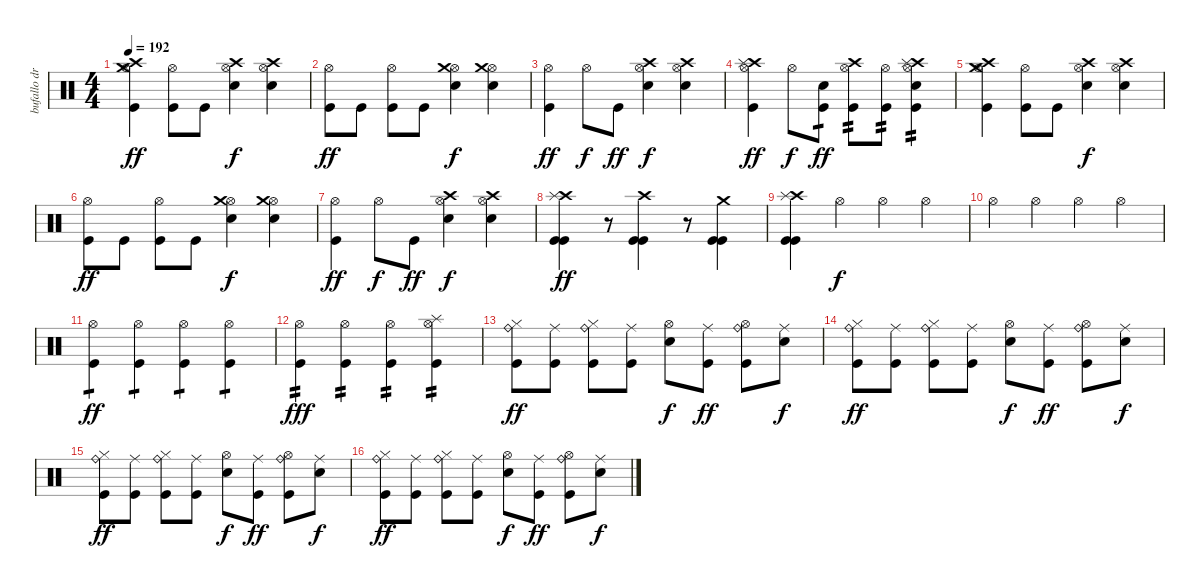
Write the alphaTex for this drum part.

\track ("bufallo drums" "bufallo dr") {instrument percussion}
\staff {score}
\articulation defaults
\ts (4 4)
\tempo 192
\clef neutral
\ks c
("Hi-Hat (open)" "Crash medium (hit)" "Crash high (hit)" "Kick (hit)").4{dy ff} ("Hi-Hat (open)" "Kick (hit)").8 "Kick (hit)".8 ("Hi-Hat (open)" "Electric Snare (hit)" "Crash high (hit)").4{dy f} ("Hi-Hat (open)" "Electric Snare (hit)" "Crash high (hit)").4 |
("Hi-Hat (open)" "Kick (hit)").8{dy ff} "Kick (hit)".8 ("Hi-Hat (open)" "Kick (hit)").8 "Kick (hit)".8 ("Hi-Hat (open)" "Electric Snare (hit)" "Crash medium (hit)").4{dy f} ("Hi-Hat (open)" "Electric Snare (hit)" "Crash medium (hit)").4 |
("Hi-Hat (open)" "Kick (hit)").4{dy ff} "Hi-Hat (open)".8{dy f} "Kick (hit)".8{dy ff} ("Hi-Hat (open)" "Electric Snare (hit)" "Crash high (hit)").4{dy f} ("Hi-Hat (open)" "Electric Snare (hit)" "Crash high (hit)").4 |
("Hi-Hat (open)" "Crash high (hit)" "Splash (hit)" "Kick (hit)").4{dy ff} "Hi-Hat (open)".8{dy f} ("Electric Snare (hit)" "Kick (hit)").8{tp 1 dy ff} ("Hi-Hat (open)" "Crash high (hit)" "Kick (hit)").8{tp 2} ("Hi-Hat (open)" "Kick (hit)").8{tp 2} ("Hi-Hat (open)" "Crash high (hit)" "Splash (hit)" "Electric Snare (hit)" "Kick (hit)").4{tp 2} |
("Hi-Hat (open)" "Crash medium (hit)" "Crash high (hit)" "Kick (hit)").4 ("Hi-Hat (open)" "Kick (hit)").8 "Kick (hit)".8 ("Hi-Hat (open)" "Electric Snare (hit)" "Crash high (hit)").4{dy f} ("Hi-Hat (open)" "Electric Snare (hit)" "Crash high (hit)").4 |
("Hi-Hat (open)" "Kick (hit)").8{dy ff} "Kick (hit)".8 ("Hi-Hat (open)" "Kick (hit)").8 "Kick (hit)".8 ("Hi-Hat (open)" "Electric Snare (hit)" "Crash medium (hit)").4{dy f} ("Hi-Hat (open)" "Electric Snare (hit)" "Crash medium (hit)").4 |
("Hi-Hat (open)" "Kick (hit)").4{dy ff} "Hi-Hat (open)".8{dy f} "Kick (hit)".8{dy ff} ("Hi-Hat (open)" "Electric Snare (hit)" "Crash high (hit)").4{dy f} ("Hi-Hat (open)" "Electric Snare (hit)" "Crash high (hit)").4 |
("Crash high (hit)" "Splash (hit)" "Kick (hit)" "Kick (hit)").4{dy ff} r.8 ("Crash high (hit)" "Kick (hit)" "Kick (hit)").4 r.8 ("Crash medium (hit)" "Kick (hit)" "Kick (hit)").4 |
("Crash high (hit)" "Splash (hit)" "Kick (hit)" "Kick (hit)").4 "Hi-Hat (open)".4{dy f} "Hi-Hat (open)".4 "Hi-Hat (open)".4 |
"Hi-Hat (open)".4 "Hi-Hat (open)".4 "Hi-Hat (open)".4 "Hi-Hat (open)".4 |
("Hi-Hat (open)" "Kick (hit)").4{tp 1 dy ff} ("Hi-Hat (open)" "Kick (hit)").4{tp 1} ("Hi-Hat (open)" "Kick (hit)").4{tp 1} ("Hi-Hat (open)" "Kick (hit)").4{tp 1} |
("Hi-Hat (open)" "Kick (hit)").4{tp 2 dy fff} ("Hi-Hat (open)" "Kick (hit)").4{tp 2} ("Hi-Hat (open)" "Kick (hit)").4{tp 2} ("Hi-Hat (open)" "Splash (hit)" "Kick (hit)").4{tp 2} |
("Hi-Hat (closed)" "Ride (bell)" "Kick (hit)").8{dy ff} ("Ride (middle)" "Kick (hit)").8 ("Hi-Hat (closed)" "Ride (bell)" "Kick (hit)").8 ("Ride (middle)" "Kick (hit)").8 ("Hi-Hat (open)" "Electric Snare (hit)").8{dy f} ("Ride (middle)" "Kick (hit)").8{dy ff} ("Hi-Hat (open)" "Ride (bell)" "Kick (hit)").8 ("Ride (middle)" "Electric Snare (hit)").8{dy f} |
("Hi-Hat (closed)" "Ride (bell)" "Kick (hit)").8{dy ff} ("Ride (middle)" "Kick (hit)").8 ("Hi-Hat (closed)" "Ride (bell)" "Kick (hit)").8 ("Ride (middle)" "Kick (hit)").8 ("Hi-Hat (open)" "Electric Snare (hit)").8{dy f} ("Ride (middle)" "Kick (hit)").8{dy ff} ("Hi-Hat (open)" "Ride (bell)" "Kick (hit)").8 ("Ride (middle)" "Electric Snare (hit)").8{dy f} |
("Hi-Hat (closed)" "Ride (bell)" "Kick (hit)").8{dy ff} ("Ride (middle)" "Kick (hit)").8 ("Hi-Hat (closed)" "Ride (bell)" "Kick (hit)").8 ("Ride (middle)" "Kick (hit)").8 ("Hi-Hat (open)" "Electric Snare (hit)").8{dy f} ("Ride (middle)" "Kick (hit)").8{dy ff} ("Hi-Hat (open)" "Ride (bell)" "Kick (hit)").8 ("Ride (middle)" "Electric Snare (hit)").8{dy f} |
("Hi-Hat (closed)" "Ride (bell)" "Kick (hit)").8{dy ff} ("Ride (middle)" "Kick (hit)").8 ("Hi-Hat (closed)" "Ride (bell)" "Kick (hit)").8 ("Ride (middle)" "Kick (hit)").8 ("Hi-Hat (open)" "Electric Snare (hit)").8{dy f} ("Ride (middle)" "Kick (hit)").8{dy ff} ("Hi-Hat (open)" "Ride (bell)" "Kick (hit)").8 ("Ride (middle)" "Electric Snare (hit)").8{dy f}
